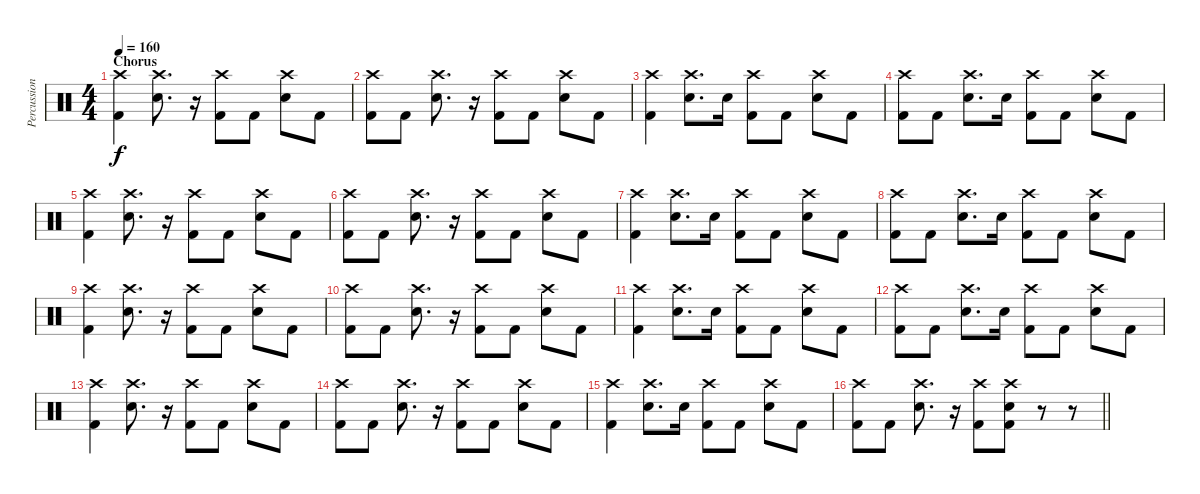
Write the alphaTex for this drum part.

\track ("Percussion" "Percussion") {instrument percussion}
\staff {score}
\articulation defaults
\ts (4 4)
\section ("" "Chorus")
\tempo 160
\clef neutral
\ks c
("Crash high (hit)" "Kick (hit) 2").4{dy f} ("Crash high (hit)" "Electric Snare (hit)").8{d} r.16 ("Crash high (hit)" "Kick (hit) 2").8 "Kick (hit) 2".8 ("Crash high (hit)" "Electric Snare (hit)").8 "Kick (hit) 2".8 |
("Crash high (hit)" "Kick (hit) 2").8 "Kick (hit) 2".8 ("Crash high (hit)" "Electric Snare (hit)").8{d} r.16 ("Crash high (hit)" "Kick (hit) 2").8 "Kick (hit) 2".8 ("Crash high (hit)" "Electric Snare (hit)").8 "Kick (hit) 2".8 |
("Crash high (hit)" "Kick (hit) 2").4 ("Crash high (hit)" "Electric Snare (hit)").8{d} "Electric Snare (hit)".16 ("Crash high (hit)" "Kick (hit) 2").8 "Kick (hit) 2".8 ("Crash high (hit)" "Electric Snare (hit)").8 "Kick (hit) 2".8 |
("Crash high (hit)" "Kick (hit) 2").8 "Kick (hit) 2".8 ("Crash high (hit)" "Electric Snare (hit)").8{d} "Electric Snare (hit)".16 ("Crash high (hit)" "Kick (hit) 2").8 "Kick (hit) 2".8 ("Crash high (hit)" "Electric Snare (hit)").8 "Kick (hit) 2".8 |
("Crash high (hit)" "Kick (hit) 2").4 ("Crash high (hit)" "Electric Snare (hit)").8{d} r.16 ("Crash high (hit)" "Kick (hit) 2").8 "Kick (hit) 2".8 ("Crash high (hit)" "Electric Snare (hit)").8 "Kick (hit) 2".8 |
("Crash high (hit)" "Kick (hit) 2").8 "Kick (hit) 2".8 ("Crash high (hit)" "Electric Snare (hit)").8{d} r.16 ("Crash high (hit)" "Kick (hit) 2").8 "Kick (hit) 2".8 ("Crash high (hit)" "Electric Snare (hit)").8 "Kick (hit) 2".8 |
("Crash high (hit)" "Kick (hit) 2").4 ("Crash high (hit)" "Electric Snare (hit)").8{d} "Electric Snare (hit)".16 ("Crash high (hit)" "Kick (hit) 2").8 "Kick (hit) 2".8 ("Crash high (hit)" "Electric Snare (hit)").8 "Kick (hit) 2".8 |
("Crash high (hit)" "Kick (hit) 2").8 "Kick (hit) 2".8 ("Crash high (hit)" "Electric Snare (hit)").8{d} "Electric Snare (hit)".16 ("Crash high (hit)" "Kick (hit) 2").8 "Kick (hit) 2".8 ("Crash high (hit)" "Electric Snare (hit)").8 "Kick (hit) 2".8 |
("Crash high (hit)" "Kick (hit) 2").4 ("Crash high (hit)" "Electric Snare (hit)").8{d} r.16 ("Crash high (hit)" "Kick (hit) 2").8 "Kick (hit) 2".8 ("Crash high (hit)" "Electric Snare (hit)").8 "Kick (hit) 2".8 |
("Crash high (hit)" "Kick (hit) 2").8 "Kick (hit) 2".8 ("Crash high (hit)" "Electric Snare (hit)").8{d} r.16 ("Crash high (hit)" "Kick (hit) 2").8 "Kick (hit) 2".8 ("Crash high (hit)" "Electric Snare (hit)").8 "Kick (hit) 2".8 |
("Crash high (hit)" "Kick (hit) 2").4 ("Crash high (hit)" "Electric Snare (hit)").8{d} "Electric Snare (hit)".16 ("Crash high (hit)" "Kick (hit) 2").8 "Kick (hit) 2".8 ("Crash high (hit)" "Electric Snare (hit)").8 "Kick (hit) 2".8 |
("Crash high (hit)" "Kick (hit) 2").8 "Kick (hit) 2".8 ("Crash high (hit)" "Electric Snare (hit)").8{d} "Electric Snare (hit)".16 ("Crash high (hit)" "Kick (hit) 2").8 "Kick (hit) 2".8 ("Crash high (hit)" "Electric Snare (hit)").8 "Kick (hit) 2".8 |
("Crash high (hit)" "Kick (hit) 2").4 ("Crash high (hit)" "Electric Snare (hit)").8{d} r.16 ("Crash high (hit)" "Kick (hit) 2").8 "Kick (hit) 2".8 ("Crash high (hit)" "Electric Snare (hit)").8 "Kick (hit) 2".8 |
("Crash high (hit)" "Kick (hit) 2").8 "Kick (hit) 2".8 ("Crash high (hit)" "Electric Snare (hit)").8{d} r.16 ("Crash high (hit)" "Kick (hit) 2").8 "Kick (hit) 2".8 ("Crash high (hit)" "Electric Snare (hit)").8 "Kick (hit) 2".8 |
("Crash high (hit)" "Kick (hit) 2").4 ("Crash high (hit)" "Electric Snare (hit)").8{d} "Electric Snare (hit)".16 ("Crash high (hit)" "Kick (hit) 2").8 "Kick (hit) 2".8 ("Crash high (hit)" "Electric Snare (hit)").8 "Kick (hit) 2".8 |
\barLineRight lightlight
("Crash high (hit)" "Kick (hit) 2").8 "Kick (hit) 2".8 ("Crash high (hit)" "Electric Snare (hit)").8{d} r.16 ("Crash high (hit)" "Kick (hit) 2").8 ("Crash high (hit)" "Electric Snare (hit)" "Kick (hit) 2").8 r.8 r.8
